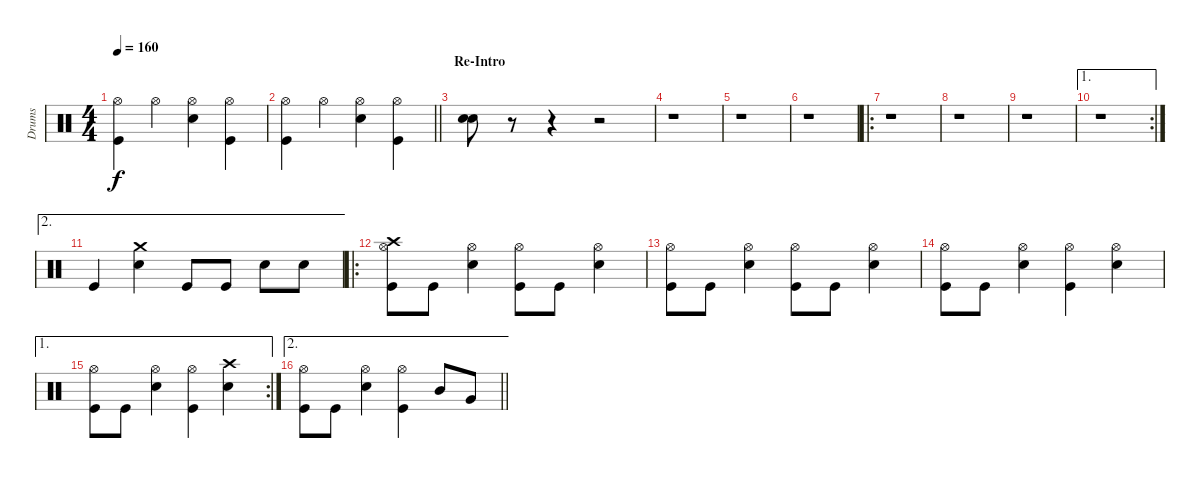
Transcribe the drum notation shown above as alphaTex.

\track ("Drums" "Drums") {instrument percussion}
\staff {score}
\articulation defaults
\ts (4 4)
\tempo 160
\clef neutral
\ks c
("Hi-Hat (open)" "Kick (hit)").4{dy f} "Hi-Hat (open)".4 ("Hi-Hat (open)" "Snare (hit) 2").4 ("Hi-Hat (open)" "Kick (hit)").4 |
\barLineRight lightlight
("Hi-Hat (open)" "Kick (hit)").4 "Hi-Hat (open)".4 ("Hi-Hat (open)" "Snare (hit) 2").4 ("Hi-Hat (open)" "Kick (hit)").4 |
\section ("" "Re-Intro")
("Snare (hit) 2" "Snare (hit) 2").8{bd 120} r.8 r.4 r.2 |
r.1 |
r.1 |
r.1 |
\ro
r.1 |
r.1 |
r.1 |
\ae 1
\rc 2
r.1 |
\ae 2 "Kick (hit)".4
("Crash medium (hit)" "Snare (hit) 2").4 "Kick (hit)".8 "Kick (hit)".8 "Snare (hit) 2".8 "Snare (hit) 2".8 |
\ro
("Crash high (hit)" "Hi-Hat (open)" "Kick (hit)").8 "Kick (hit)".8 ("Hi-Hat (open)" "Snare (hit) 2").4 ("Hi-Hat (open)" "Kick (hit)").8 "Kick (hit)".8 ("Hi-Hat (open)" "Snare (hit) 2").4 |
("Hi-Hat (open)" "Kick (hit)").8 "Kick (hit)".8 ("Hi-Hat (open)" "Snare (hit) 2").4 ("Hi-Hat (open)" "Kick (hit)").8 "Kick (hit)".8 ("Hi-Hat (open)" "Snare (hit) 2").4 |
("Hi-Hat (open)" "Kick (hit)").8 "Kick (hit)".8 ("Hi-Hat (open)" "Snare (hit) 2").4 ("Hi-Hat (open)" "Kick (hit)").4 ("Hi-Hat (open)" "Snare (hit) 2").4 |
\ae 1
\rc 2
("Hi-Hat (open)" "Kick (hit)").8 "Kick (hit)".8 ("Hi-Hat (open)" "Snare (hit) 2").4 ("Hi-Hat (open)" "Kick (hit)").4 ("Crash high (hit)" "Snare (hit) 2").4 |
\ae 2
\barLineRight lightlight
("Hi-Hat (open)" "Kick (hit)").8 "Kick (hit)".8 ("Hi-Hat (open)" "Snare (hit) 2").4 ("Hi-Hat (open)" "Kick (hit)").4 "Mid Tom (hit)".8 "Very Low Tom (hit)".8
